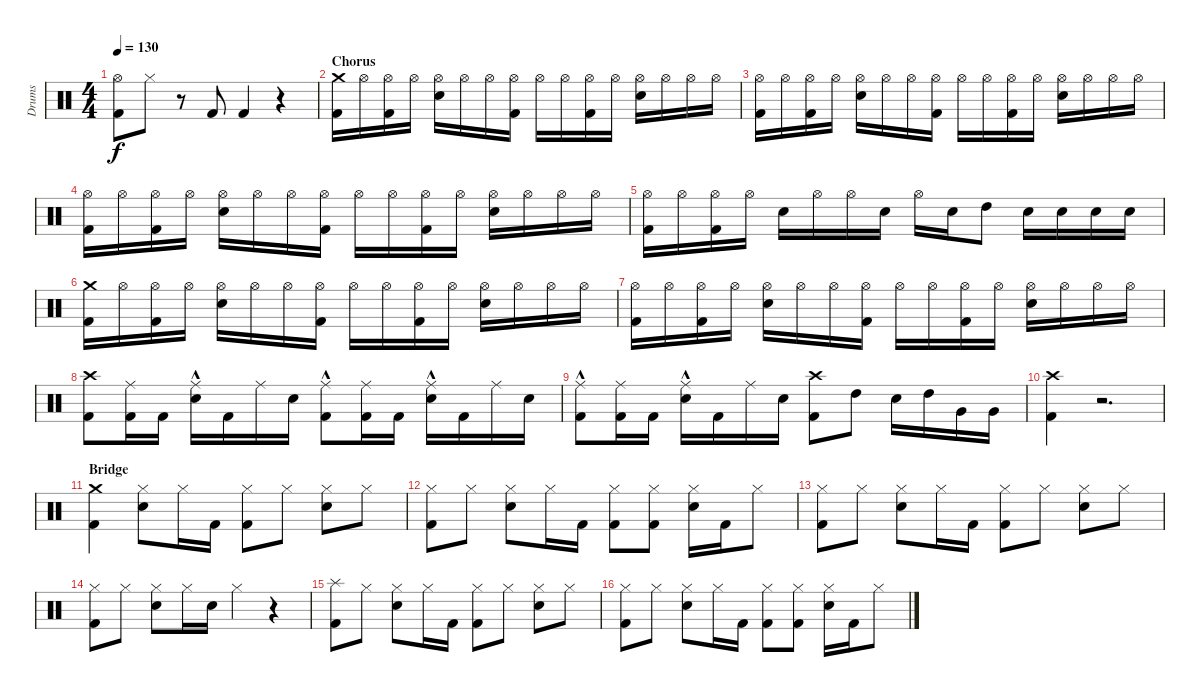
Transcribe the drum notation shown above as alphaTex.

\track ("Drums" "Drums") {instrument percussion}
\staff {score}
\articulation defaults
\ts (4 4)
\tempo 130
\clef neutral
\ks c
("Hi-Hat (open)" "Kick (hit) 2").8{dy f} "Hi-Hat (closed)".8 r.8 "Kick (hit) 2".8 "Kick (hit) 2".4 r.4 |
\section ("" "Chorus")
("Crash medium (hit)" "Kick (hit) 2").16 "Hi-Hat (open)".16 ("Hi-Hat (open)" "Kick (hit) 2").16 "Hi-Hat (open)".16 ("Hi-Hat (open)" "Snare (hit) 2").16 "Hi-Hat (open)".16 "Hi-Hat (open)".16 ("Hi-Hat (open)" "Kick (hit) 2").16 "Hi-Hat (open)".16 "Hi-Hat (open)".16 ("Hi-Hat (open)" "Kick (hit) 2").16 "Hi-Hat (open)".16 ("Hi-Hat (open)" "Snare (hit) 2").16 "Hi-Hat (open)".16 "Hi-Hat (open)".16 "Hi-Hat (open)".16 |
("Hi-Hat (open)" "Kick (hit) 2").16 "Hi-Hat (open)".16 ("Hi-Hat (open)" "Kick (hit) 2").16 "Hi-Hat (open)".16 ("Hi-Hat (open)" "Snare (hit) 2").16 "Hi-Hat (open)".16 "Hi-Hat (open)".16 ("Hi-Hat (open)" "Kick (hit) 2").16 "Hi-Hat (open)".16 "Hi-Hat (open)".16 ("Hi-Hat (open)" "Kick (hit) 2").16 "Hi-Hat (open)".16 ("Hi-Hat (open)" "Snare (hit) 2").16 "Hi-Hat (open)".16 "Hi-Hat (open)".16 "Hi-Hat (open)".16 |
("Hi-Hat (open)" "Kick (hit) 2").16 "Hi-Hat (open)".16 ("Hi-Hat (open)" "Kick (hit) 2").16 "Hi-Hat (open)".16 ("Hi-Hat (open)" "Snare (hit) 2").16 "Hi-Hat (open)".16 "Hi-Hat (open)".16 ("Hi-Hat (open)" "Kick (hit) 2").16 "Hi-Hat (open)".16 "Hi-Hat (open)".16 ("Hi-Hat (open)" "Kick (hit) 2").16 "Hi-Hat (open)".16 ("Hi-Hat (open)" "Snare (hit) 2").16 "Hi-Hat (open)".16 "Hi-Hat (open)".16 "Hi-Hat (open)".16 |
("Hi-Hat (open)" "Kick (hit) 2").16 "Hi-Hat (open)".16 ("Hi-Hat (open)" "Kick (hit) 2").16 "Hi-Hat (open)".16 "Snare (hit) 2".16 "Hi-Hat (open)".16 "Hi-Hat (open)".16 "Snare (hit) 2".16 "Hi-Hat (open)".16 "Snare (hit) 2".16 "High Tom (hit)".8 "Snare (hit) 2".16 "Snare (hit) 2".16 "Snare (hit) 2".16 "Snare (hit) 2".16 |
("Crash medium (hit)" "Kick (hit) 2").16 "Hi-Hat (open)".16 ("Hi-Hat (open)" "Kick (hit) 2").16 "Hi-Hat (open)".16 ("Hi-Hat (open)" "Snare (hit) 2").16 "Hi-Hat (open)".16 "Hi-Hat (open)".16 ("Hi-Hat (open)" "Kick (hit) 2").16 "Hi-Hat (open)".16 "Hi-Hat (open)".16 ("Hi-Hat (open)" "Kick (hit) 2").16 "Hi-Hat (open)".16 ("Hi-Hat (open)" "Snare (hit) 2").16 "Hi-Hat (open)".16 "Hi-Hat (open)".16 "Hi-Hat (open)".16 |
("Hi-Hat (open)" "Kick (hit) 2").16 "Hi-Hat (open)".16 ("Hi-Hat (open)" "Kick (hit) 2").16 "Hi-Hat (open)".16 ("Hi-Hat (open)" "Snare (hit) 2").16 "Hi-Hat (open)".16 "Hi-Hat (open)".16 ("Hi-Hat (open)" "Kick (hit) 2").16 "Hi-Hat (open)".16 "Hi-Hat (open)".16 ("Hi-Hat (open)" "Kick (hit) 2").16 "Hi-Hat (open)".16 ("Hi-Hat (open)" "Snare (hit) 2").16 "Hi-Hat (open)".16 "Hi-Hat (open)".16 "Hi-Hat (open)".16 |
("Crash high (hit)" "Kick (hit) 2").8 ("Ride (middle)" "Kick (hit) 2").16 "Kick (hit) 2".16 ("Ride (middle)"{hac} "Snare (hit) 2").16 "Kick (hit) 2".16 "Ride (middle)".16 "Snare (hit) 2".16 ("Ride (middle)"{hac} "Kick (hit) 2").8 ("Ride (middle)" "Kick (hit) 2").16 "Kick (hit) 2".16 ("Ride (middle)"{hac} "Snare (hit) 2").16 "Kick (hit) 2".16 "Ride (middle)".16 "Snare (hit) 2".16 |
("Ride (middle)"{hac} "Kick (hit) 2").8 ("Ride (middle)" "Kick (hit) 2").16 "Kick (hit) 2".16 ("Ride (middle)"{hac} "Snare (hit) 2").16 "Kick (hit) 2".16 "Ride (middle)".16 "Snare (hit) 2".16 ("Crash high (hit)" "Kick (hit) 2").8 "High Tom (hit)".8 "Snare (hit) 2".16 "High Tom (hit)".16 "Very Low Tom (hit)".16 "Very Low Tom (hit)".16 |
("Crash high (hit)" "Kick (hit) 2").4 r.2{d} |
\section ("" "Bridge")
("Crash medium (hit)" "Kick (hit) 2").4 ("Hi-Hat (closed)" "Snare (hit) 2").8 "Hi-Hat (closed)".16 "Kick (hit) 2".16 ("Hi-Hat (closed)" "Kick (hit) 2").8 "Hi-Hat (closed)".8 ("Hi-Hat (closed)" "Snare (hit) 2").8 "Hi-Hat (closed)".8 |
("Hi-Hat (closed)" "Kick (hit) 2").8 "Hi-Hat (closed)".8 ("Hi-Hat (closed)" "Snare (hit) 2").8 "Hi-Hat (closed)".16 "Kick (hit) 2".16 ("Hi-Hat (closed)" "Kick (hit) 2").8 ("Hi-Hat (closed)" "Kick (hit) 2").8 ("Hi-Hat (closed)" "Snare (hit) 2").16 "Kick (hit) 2".16 "Hi-Hat (closed)".8 |
("Hi-Hat (closed)" "Kick (hit) 2").8 "Hi-Hat (closed)".8 ("Hi-Hat (closed)" "Snare (hit) 2").8 "Hi-Hat (closed)".16 "Kick (hit) 2".16 ("Hi-Hat (closed)" "Kick (hit) 2").8 "Hi-Hat (closed)".8 ("Hi-Hat (closed)" "Snare (hit) 2").8 "Hi-Hat (closed)".8 |
("Hi-Hat (closed)" "Kick (hit) 2").8 "Hi-Hat (closed)".8 ("Hi-Hat (closed)" "Snare (hit) 2").8 "Hi-Hat (closed)".16 "Snare (hit) 2".16 "Hi-Hat (closed)".4 r.4 |
("Splash (hit)" "Kick (hit) 2").8 "Hi-Hat (closed)".8 ("Hi-Hat (closed)" "Snare (hit) 2").8 "Hi-Hat (closed)".16 "Kick (hit) 2".16 ("Hi-Hat (closed)" "Kick (hit) 2").8 "Hi-Hat (closed)".8 ("Hi-Hat (closed)" "Snare (hit) 2").8 "Hi-Hat (closed)".8 |
("Hi-Hat (closed)" "Kick (hit) 2").8 "Hi-Hat (closed)".8 ("Hi-Hat (closed)" "Snare (hit) 2").8 "Hi-Hat (closed)".16 "Kick (hit) 2".16 ("Hi-Hat (closed)" "Kick (hit) 2").8 ("Hi-Hat (closed)" "Kick (hit) 2").8 ("Hi-Hat (closed)" "Snare (hit) 2").16 "Kick (hit) 2".16 "Hi-Hat (closed)".8
